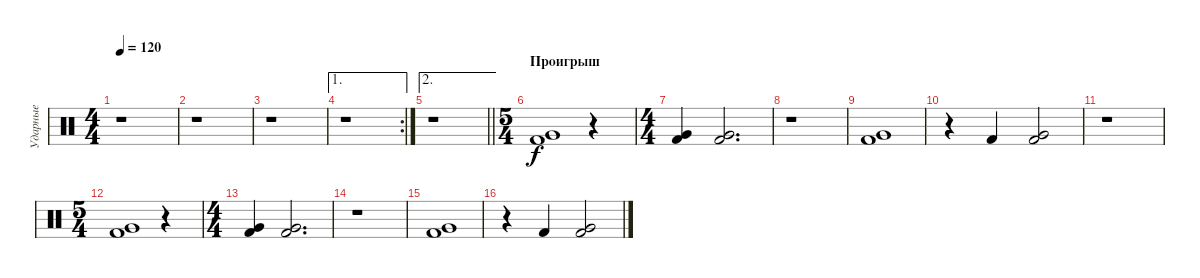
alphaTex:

\track ("Ударные" "Ударные") {instrument percussion}
\staff {score}
\articulation defaults
\ts (4 4)
\tempo 120
\clef neutral
\ks c
r.1{dy f} |
r.1 |
r.1 |
\ae 1
\rc 2
r.1 |
\ae 2
\barLineRight lightlight
r.1 |
\ts (5 4)
\section ("" "Проигрыш")
("Very Low Tom (hit)" "Kick (hit) 2").1 r.4 |
\ts (4 4)
("Very Low Tom (hit)" "Kick (hit) 2").4 ("Very Low Tom (hit)" "Kick (hit) 2").2{d} |
r.1 |
("Very Low Tom (hit)" "Kick (hit) 2").1 |
r.4 "Kick (hit) 2".4 ("Very Low Tom (hit)" "Kick (hit) 2").2 |
r.1 |
\ts (5 4)
("Very Low Tom (hit)" "Kick (hit) 2").1 r.4 |
\ts (4 4)
("Very Low Tom (hit)" "Kick (hit) 2").4 ("Very Low Tom (hit)" "Kick (hit) 2").2{d} |
r.1 |
("Very Low Tom (hit)" "Kick (hit) 2").1 |
r.4 "Kick (hit) 2".4 ("Very Low Tom (hit)" "Kick (hit) 2").2
